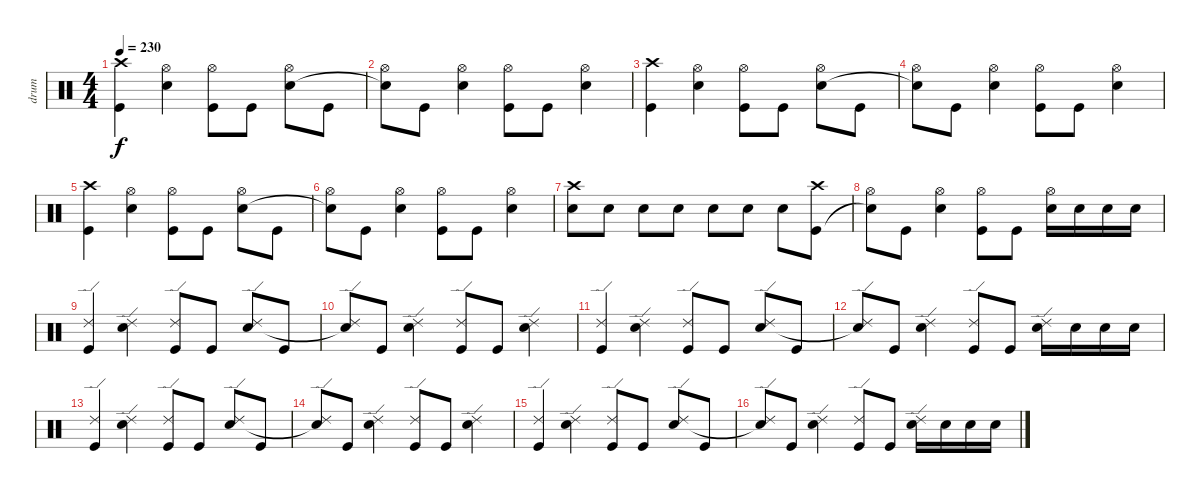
\track ("drum" "drum") {instrument percussion}
\staff {score}
\articulation defaults
\ts (4 4)
\tempo 230
\clef neutral
\ks c
("Crash high (hit)" "Kick (hit)").4{dy f} ("Hi-Hat (open)" "Snare (hit) 2").4 ("Hi-Hat (open)" "Kick (hit)").8 "Kick (hit)".8 ("Hi-Hat (open)" "Snare (hit) 2").8 "Kick (hit)".8 |
("Hi-Hat (open)" "Snare (hit) 2"{t}).8 "Kick (hit)".8 ("Hi-Hat (open)" "Snare (hit) 2").4 ("Hi-Hat (open)" "Kick (hit)").8 "Kick (hit)".8 ("Hi-Hat (open)" "Snare (hit) 2").4 |
("Crash high (hit)" "Kick (hit)").4 ("Hi-Hat (open)" "Snare (hit) 2").4 ("Hi-Hat (open)" "Kick (hit)").8 "Kick (hit)".8 ("Hi-Hat (open)" "Snare (hit) 2").8 "Kick (hit)".8 |
("Hi-Hat (open)" "Snare (hit) 2"{t}).8 "Kick (hit)".8 ("Hi-Hat (open)" "Snare (hit) 2").4 ("Hi-Hat (open)" "Kick (hit)").8 "Kick (hit)".8 ("Hi-Hat (open)" "Snare (hit) 2").4 |
("Crash high (hit)" "Kick (hit)").4 ("Hi-Hat (open)" "Snare (hit) 2").4 ("Hi-Hat (open)" "Kick (hit)").8 "Kick (hit)".8 ("Hi-Hat (open)" "Snare (hit) 2").8 "Kick (hit)".8 |
("Hi-Hat (open)" "Snare (hit) 2"{t}).8 "Kick (hit)".8 ("Hi-Hat (open)" "Snare (hit) 2").4 ("Hi-Hat (open)" "Kick (hit)").8 "Kick (hit)".8 ("Hi-Hat (open)" "Snare (hit) 2").4 |
("Crash high (hit)" "Snare (hit) 2").8 "Snare (hit) 2".8 "Snare (hit) 2".8 "Snare (hit) 2".8 "Snare (hit) 2".8 "Snare (hit) 2".8 "Snare (hit) 2".8 ("Crash high (hit)" "Kick (hit)").8 |
("Hi-Hat (open)" "Snare (hit) 2"{t}).8 "Kick (hit)".8 ("Hi-Hat (open)" "Snare (hit) 2").4 ("Hi-Hat (open)" "Kick (hit)").8 "Kick (hit)".8 ("Hi-Hat (open)" "Snare (hit) 2").16 "Snare (hit) 2".16 "Snare (hit) 2".16 "Snare (hit) 2".16 |
("Ride (edge) 2" "Kick (hit)").4 ("Ride (edge) 2" "Snare (hit) 2").4 ("Ride (edge) 2" "Kick (hit)").8 "Kick (hit)".8 ("Ride (edge) 2" "Snare (hit) 2").8 "Kick (hit)".8 |
("Ride (edge) 2" "Snare (hit) 2"{t}).8 "Kick (hit)".8 ("Ride (edge) 2" "Snare (hit) 2").4 ("Ride (edge) 2" "Kick (hit)").8 "Kick (hit)".8 ("Ride (edge) 2" "Snare (hit) 2").4 |
("Ride (edge) 2" "Kick (hit)").4 ("Ride (edge) 2" "Snare (hit) 2").4 ("Ride (edge) 2" "Kick (hit)").8 "Kick (hit)".8 ("Ride (edge) 2" "Snare (hit) 2").8 "Kick (hit)".8 |
("Ride (edge) 2" "Snare (hit) 2"{t}).8 "Kick (hit)".8 ("Ride (edge) 2" "Snare (hit) 2").4 ("Ride (edge) 2" "Kick (hit)").8 "Kick (hit)".8 ("Ride (edge) 2" "Snare (hit) 2").16 "Snare (hit) 2".16 "Snare (hit) 2".16 "Snare (hit) 2".16 |
("Ride (edge) 2" "Kick (hit)").4 ("Ride (edge) 2" "Snare (hit) 2").4 ("Ride (edge) 2" "Kick (hit)").8 "Kick (hit)".8 ("Ride (edge) 2" "Snare (hit) 2").8 "Kick (hit)".8 |
("Ride (edge) 2" "Snare (hit) 2"{t}).8 "Kick (hit)".8 ("Ride (edge) 2" "Snare (hit) 2").4 ("Ride (edge) 2" "Kick (hit)").8 "Kick (hit)".8 ("Ride (edge) 2" "Snare (hit) 2").4 |
("Ride (edge) 2" "Kick (hit)").4 ("Ride (edge) 2" "Snare (hit) 2").4 ("Ride (edge) 2" "Kick (hit)").8 "Kick (hit)".8 ("Ride (edge) 2" "Snare (hit) 2").8 "Kick (hit)".8 |
("Ride (edge) 2" "Snare (hit) 2"{t}).8 "Kick (hit)".8 ("Ride (edge) 2" "Snare (hit) 2").4 ("Ride (edge) 2" "Kick (hit)").8 "Kick (hit)".8 ("Ride (edge) 2" "Snare (hit) 2").16 "Snare (hit) 2".16 "Snare (hit) 2".16 "Snare (hit) 2".16
